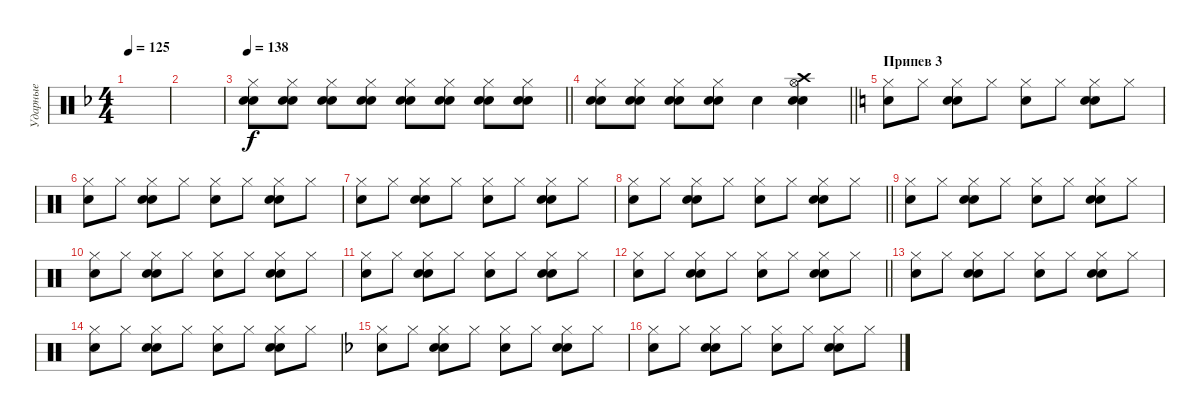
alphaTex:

\track ("Ударные" "Ударные") {instrument percussion}
\staff {score}
\articulation defaults
\ts (4 4)
\tempo 125
\clef neutral
\ks f
|
|
\tempo 138
\barLineRight lightlight
("Hi-Hat (closed)" "Snare (hit) 2" "Electric Snare (hit)").8 ("Hi-Hat (closed)" "Snare (hit) 2" "Electric Snare (hit)").8 ("Hi-Hat (closed)" "Snare (hit) 2" "Electric Snare (hit)").8 ("Hi-Hat (closed)" "Snare (hit) 2" "Electric Snare (hit)").8 ("Hi-Hat (closed)" "Snare (hit) 2" "Electric Snare (hit)").8 ("Hi-Hat (closed)" "Snare (hit) 2" "Electric Snare (hit)").8 ("Hi-Hat (closed)" "Snare (hit) 2" "Electric Snare (hit)").8 ("Hi-Hat (closed)" "Snare (hit) 2" "Electric Snare (hit)").8 |
\barLineRight lightlight
("Hi-Hat (closed)" "Snare (hit) 2" "Electric Snare (hit)").8 ("Hi-Hat (closed)" "Snare (hit) 2" "Electric Snare (hit)").8 ("Hi-Hat (closed)" "Snare (hit) 2" "Electric Snare (hit)").8 ("Hi-Hat (closed)" "Snare (hit) 2" "Electric Snare (hit)").8 "Snare (hit) 2".4 ("Hi-Hat (open)" "Snare (hit) 2" "Electric Snare (hit)" "Crash high (hit)").4 |
\section ("" "Припев 3")
\ks c
("Hi-Hat (closed)" "Snare (hit) 2").8 "Hi-Hat (closed)".8 ("Hi-Hat (closed)" "Snare (hit) 2" "Electric Snare (hit)").8 "Hi-Hat (closed)".8 ("Hi-Hat (closed)" "Snare (hit) 2").8 "Hi-Hat (closed)".8 ("Hi-Hat (closed)" "Snare (hit) 2" "Electric Snare (hit)").8 "Hi-Hat (closed)".8 |
("Hi-Hat (closed)" "Snare (hit) 2").8 "Hi-Hat (closed)".8 ("Hi-Hat (closed)" "Snare (hit) 2" "Electric Snare (hit)").8 "Hi-Hat (closed)".8 ("Hi-Hat (closed)" "Snare (hit) 2").8 "Hi-Hat (closed)".8 ("Hi-Hat (closed)" "Snare (hit) 2" "Electric Snare (hit)").8 "Hi-Hat (closed)".8 |
("Hi-Hat (closed)" "Snare (hit) 2").8 "Hi-Hat (closed)".8 ("Hi-Hat (closed)" "Snare (hit) 2" "Electric Snare (hit)").8 "Hi-Hat (closed)".8 ("Hi-Hat (closed)" "Snare (hit) 2").8 "Hi-Hat (closed)".8 ("Hi-Hat (closed)" "Snare (hit) 2" "Electric Snare (hit)").8 "Hi-Hat (closed)".8 |
\barLineRight lightlight
("Hi-Hat (closed)" "Snare (hit) 2").8 "Hi-Hat (closed)".8 ("Hi-Hat (closed)" "Snare (hit) 2" "Electric Snare (hit)").8 "Hi-Hat (closed)".8 ("Hi-Hat (closed)" "Snare (hit) 2").8 "Hi-Hat (closed)".8 ("Hi-Hat (closed)" "Snare (hit) 2" "Electric Snare (hit)").8 "Hi-Hat (closed)".8 |
("Hi-Hat (closed)" "Snare (hit) 2").8 "Hi-Hat (closed)".8 ("Hi-Hat (closed)" "Snare (hit) 2" "Electric Snare (hit)").8 "Hi-Hat (closed)".8 ("Hi-Hat (closed)" "Snare (hit) 2").8 "Hi-Hat (closed)".8 ("Hi-Hat (closed)" "Snare (hit) 2" "Electric Snare (hit)").8 "Hi-Hat (closed)".8 |
("Hi-Hat (closed)" "Snare (hit) 2").8 "Hi-Hat (closed)".8 ("Hi-Hat (closed)" "Snare (hit) 2" "Electric Snare (hit)").8 "Hi-Hat (closed)".8 ("Hi-Hat (closed)" "Snare (hit) 2").8 "Hi-Hat (closed)".8 ("Hi-Hat (closed)" "Snare (hit) 2" "Electric Snare (hit)").8 "Hi-Hat (closed)".8 |
("Hi-Hat (closed)" "Snare (hit) 2").8 "Hi-Hat (closed)".8 ("Hi-Hat (closed)" "Snare (hit) 2" "Electric Snare (hit)").8 "Hi-Hat (closed)".8 ("Hi-Hat (closed)" "Snare (hit) 2").8 "Hi-Hat (closed)".8 ("Hi-Hat (closed)" "Snare (hit) 2" "Electric Snare (hit)").8 "Hi-Hat (closed)".8 |
\barLineRight lightlight
("Hi-Hat (closed)" "Snare (hit) 2").8 "Hi-Hat (closed)".8 ("Hi-Hat (closed)" "Snare (hit) 2" "Electric Snare (hit)").8 "Hi-Hat (closed)".8 ("Hi-Hat (closed)" "Snare (hit) 2").8 "Hi-Hat (closed)".8 ("Hi-Hat (closed)" "Snare (hit) 2" "Electric Snare (hit)").8 "Hi-Hat (closed)".8 |
("Hi-Hat (closed)" "Snare (hit) 2").8 "Hi-Hat (closed)".8 ("Hi-Hat (closed)" "Snare (hit) 2" "Electric Snare (hit)").8 "Hi-Hat (closed)".8 ("Hi-Hat (closed)" "Snare (hit) 2").8 "Hi-Hat (closed)".8 ("Hi-Hat (closed)" "Snare (hit) 2" "Electric Snare (hit)").8 "Hi-Hat (closed)".8 |
("Hi-Hat (closed)" "Snare (hit) 2").8 "Hi-Hat (closed)".8 ("Hi-Hat (closed)" "Snare (hit) 2" "Electric Snare (hit)").8 "Hi-Hat (closed)".8 ("Hi-Hat (closed)" "Snare (hit) 2").8 "Hi-Hat (closed)".8 ("Hi-Hat (closed)" "Snare (hit) 2" "Electric Snare (hit)").8 "Hi-Hat (closed)".8 |
\ks f
("Hi-Hat (closed)" "Snare (hit) 2").8 "Hi-Hat (closed)".8 ("Hi-Hat (closed)" "Snare (hit) 2" "Electric Snare (hit)").8 "Hi-Hat (closed)".8 ("Hi-Hat (closed)" "Snare (hit) 2").8 "Hi-Hat (closed)".8 ("Hi-Hat (closed)" "Snare (hit) 2" "Electric Snare (hit)").8 "Hi-Hat (closed)".8 |
("Hi-Hat (closed)" "Snare (hit) 2").8 "Hi-Hat (closed)".8 ("Hi-Hat (closed)" "Snare (hit) 2" "Electric Snare (hit)").8 "Hi-Hat (closed)".8 ("Hi-Hat (closed)" "Snare (hit) 2").8 "Hi-Hat (closed)".8 ("Hi-Hat (closed)" "Snare (hit) 2" "Electric Snare (hit)").8 "Hi-Hat (closed)".8
